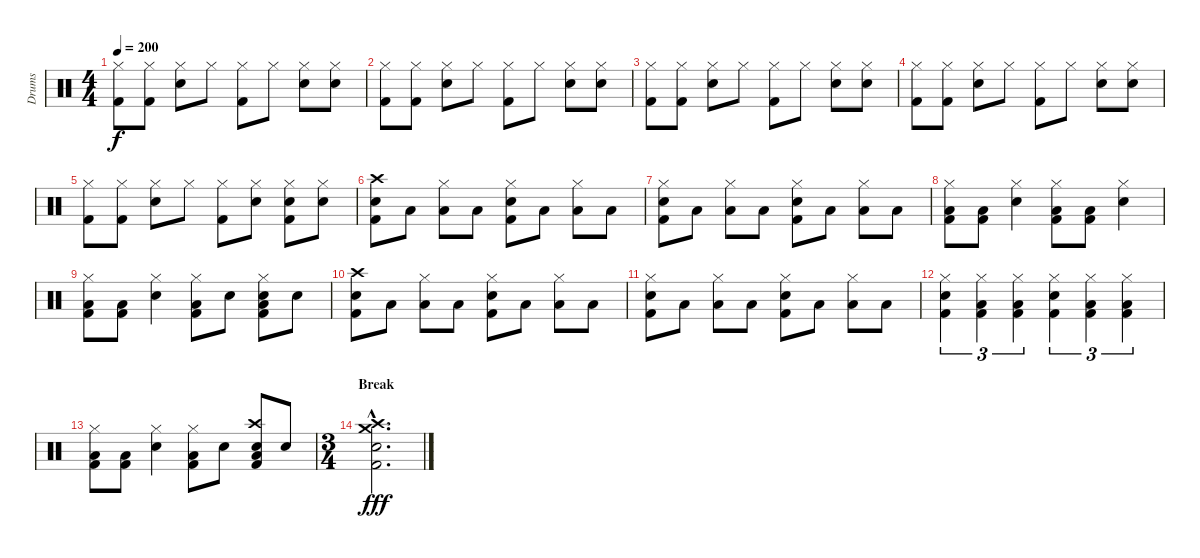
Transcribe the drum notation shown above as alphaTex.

\track ("Drums" "Drums") {instrument percussion}
\staff {score}
\articulation defaults
\ts (4 4)
\tempo 200
\clef neutral
\ks c
("Hi-Hat (closed)" "Kick (hit) 2").8{dy f} ("Hi-Hat (closed)" "Kick (hit) 2").8 ("Hi-Hat (closed)" "Snare (hit) 2").8 "Hi-Hat (closed)".8 ("Hi-Hat (closed)" "Kick (hit) 2").8 "Hi-Hat (closed)".8 ("Hi-Hat (closed)" "Snare (hit) 2").8 ("Hi-Hat (closed)" "Snare (hit) 2").8 |
("Hi-Hat (closed)" "Kick (hit) 2").8 ("Hi-Hat (closed)" "Kick (hit) 2").8 ("Hi-Hat (closed)" "Snare (hit) 2").8 "Hi-Hat (closed)".8 ("Hi-Hat (closed)" "Kick (hit) 2").8 "Hi-Hat (closed)".8 ("Hi-Hat (closed)" "Snare (hit) 2").8 ("Hi-Hat (closed)" "Snare (hit) 2").8 |
("Hi-Hat (closed)" "Kick (hit) 2").8 ("Hi-Hat (closed)" "Kick (hit) 2").8 ("Hi-Hat (closed)" "Snare (hit) 2").8 "Hi-Hat (closed)".8 ("Hi-Hat (closed)" "Kick (hit) 2").8 "Hi-Hat (closed)".8 ("Hi-Hat (closed)" "Snare (hit) 2").8 ("Hi-Hat (closed)" "Snare (hit) 2").8 |
("Hi-Hat (closed)" "Kick (hit) 2").8 ("Hi-Hat (closed)" "Kick (hit) 2").8 ("Hi-Hat (closed)" "Snare (hit) 2").8 "Hi-Hat (closed)".8 ("Hi-Hat (closed)" "Kick (hit) 2").8 "Hi-Hat (closed)".8 ("Hi-Hat (closed)" "Snare (hit) 2").8 ("Hi-Hat (closed)" "Snare (hit) 2").8 |
("Hi-Hat (closed)" "Kick (hit) 2").8 ("Hi-Hat (closed)" "Kick (hit) 2").8 ("Hi-Hat (closed)" "Snare (hit) 2").8 "Hi-Hat (closed)".8 ("Hi-Hat (closed)" "Kick (hit) 2").8 ("Hi-Hat (closed)" "Snare (hit) 2").8 ("Hi-Hat (closed)" "Snare (hit) 2" "Kick (hit) 2").8 ("Hi-Hat (closed)" "Snare (hit) 2").8 |
("Crash high (hit)" "Snare (hit) 2" "Kick (hit) 2").8 "Low Tom (hit)".8 ("Hi-Hat (closed)" "Low Floor Tom (hit)").8 "Low Floor Tom (hit)".8 ("Hi-Hat (closed)" "Snare (hit) 2" "Kick (hit) 2").8 "Low Tom (hit)".8 ("Hi-Hat (closed)" "Low Floor Tom (hit)").8 "Low Floor Tom (hit)".8 |
("Hi-Hat (closed)" "Snare (hit) 2" "Kick (hit) 2").8 "Low Tom (hit)".8 ("Hi-Hat (closed)" "Low Floor Tom (hit)").8 "Low Floor Tom (hit)".8 ("Hi-Hat (closed)" "Snare (hit) 2" "Kick (hit) 2").8 "Low Tom (hit)".8 ("Hi-Hat (closed)" "Low Floor Tom (hit)").8 "Low Floor Tom (hit)".8 |
("Hi-Hat (closed)" "Low Floor Tom (hit)" "Kick (hit) 2").8 ("Low Floor Tom (hit)" "Kick (hit) 2").8 ("Hi-Hat (closed)" "Snare (hit) 2").4 ("Hi-Hat (closed)" "Low Floor Tom (hit)" "Kick (hit) 2").8 ("Low Floor Tom (hit)" "Kick (hit) 2").8 ("Hi-Hat (closed)" "Snare (hit) 2").4 |
("Hi-Hat (closed)" "Low Floor Tom (hit)" "Kick (hit) 2").8 ("Low Floor Tom (hit)" "Kick (hit) 2").8 ("Hi-Hat (closed)" "Snare (hit) 2").4 ("Hi-Hat (closed)" "Low Floor Tom (hit)" "Kick (hit) 2").8 "Snare (hit) 2".8 ("Hi-Hat (closed)" "Snare (hit) 2" "Low Floor Tom (hit)" "Kick (hit) 2").8 "Snare (hit) 2".8 |
("Crash high (hit)" "Snare (hit) 2" "Kick (hit) 2").8 "Low Tom (hit)".8 ("Hi-Hat (closed)" "Low Floor Tom (hit)").8 "Low Floor Tom (hit)".8 ("Hi-Hat (closed)" "Snare (hit) 2" "Kick (hit) 2").8 "Low Tom (hit)".8 ("Hi-Hat (closed)" "Low Floor Tom (hit)").8 "Low Floor Tom (hit)".8 |
("Hi-Hat (closed)" "Snare (hit) 2" "Kick (hit) 2").8 "Low Tom (hit)".8 ("Hi-Hat (closed)" "Low Floor Tom (hit)").8 "Low Floor Tom (hit)".8 ("Hi-Hat (closed)" "Snare (hit) 2" "Kick (hit) 2").8 "Low Tom (hit)".8 ("Hi-Hat (closed)" "Low Floor Tom (hit)").8 "Low Floor Tom (hit)".8 |
("Hi-Hat (closed)" "Snare (hit) 2" "Kick (hit) 2").4{tu (3 2)} ("Hi-Hat (closed)" "Low Tom (hit)" "Kick (hit) 2").4{tu (3 2)} ("Hi-Hat (closed)" "Low Floor Tom (hit)" "Kick (hit) 2").4{tu (3 2)} ("Hi-Hat (closed)" "Snare (hit) 2" "Kick (hit) 2").4{tu (3 2)} ("Hi-Hat (closed)" "Low Tom (hit)" "Kick (hit) 2").4{tu (3 2)} ("Hi-Hat (closed)" "Low Floor Tom (hit)" "Kick (hit) 2").4{tu (3 2)} |
("Hi-Hat (closed)" "Low Floor Tom (hit)" "Kick (hit) 2").8 ("Low Floor Tom (hit)" "Kick (hit) 2").8 ("Hi-Hat (closed)" "Snare (hit) 2").4 ("Hi-Hat (closed)" "Low Floor Tom (hit)" "Kick (hit) 2").8 "Snare (hit) 2".8 ("Crash high (hit)" "Snare (hit) 2" "Low Floor Tom (hit)" "Kick (hit) 2").8 "Snare (hit) 2".8 |
\ts (3 4)
\section ("" "Break")
("Crash high (hit)"{hac} "Crash medium (hit)"{hac} "Snare (hit) 2"{hac} "Kick (hit) 2"{hac}).2{d dy fff}
